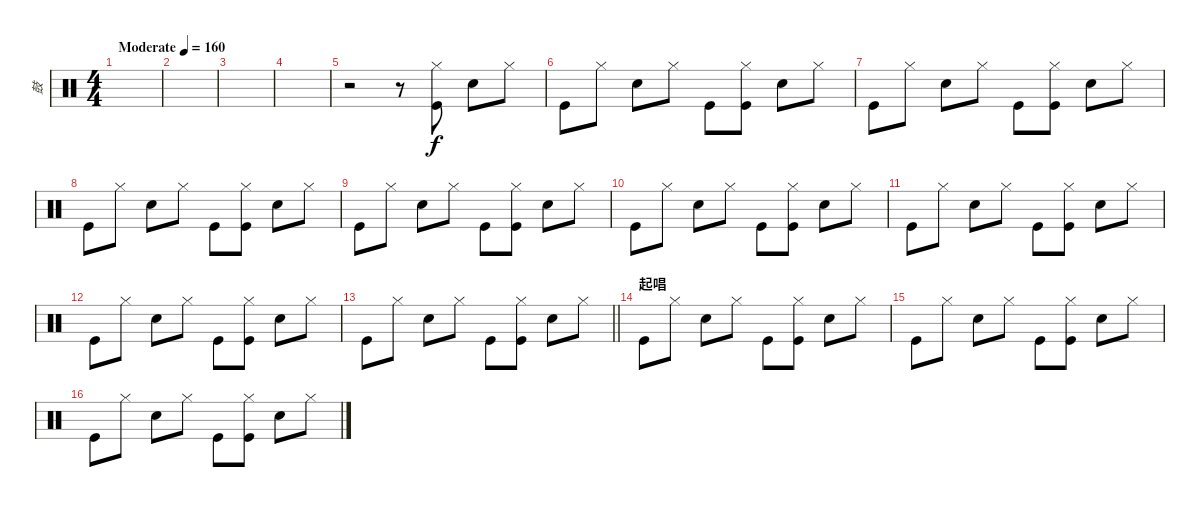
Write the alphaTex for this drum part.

\track ("鼓" "鼓") {instrument percussion}
\staff {score}
\articulation defaults
\ts (4 4)
\tempo (160 "Moderate")
\clef neutral
\ks c
|
|
|
|
r.2 r.8 ("Hi-Hat (closed)" "Kick (hit)").8 "Electric Snare (hit)".8 "Hi-Hat (closed)".8 |
"Kick (hit)".8 "Hi-Hat (closed)".8 "Electric Snare (hit)".8 "Hi-Hat (closed)".8 "Kick (hit)".8 ("Hi-Hat (closed)" "Kick (hit)").8 "Electric Snare (hit)".8 "Hi-Hat (closed)".8 |
"Kick (hit)".8 "Hi-Hat (closed)".8 "Electric Snare (hit)".8 "Hi-Hat (closed)".8 "Kick (hit)".8 ("Hi-Hat (closed)" "Kick (hit)").8 "Electric Snare (hit)".8 "Hi-Hat (closed)".8 |
"Kick (hit)".8 "Hi-Hat (closed)".8 "Electric Snare (hit)".8 "Hi-Hat (closed)".8 "Kick (hit)".8 ("Hi-Hat (closed)" "Kick (hit)").8 "Electric Snare (hit)".8 "Hi-Hat (closed)".8 |
"Kick (hit)".8 "Hi-Hat (closed)".8 "Electric Snare (hit)".8 "Hi-Hat (closed)".8 "Kick (hit)".8 ("Hi-Hat (closed)" "Kick (hit)").8 "Electric Snare (hit)".8 "Hi-Hat (closed)".8 |
"Kick (hit)".8 "Hi-Hat (closed)".8 "Electric Snare (hit)".8 "Hi-Hat (closed)".8 "Kick (hit)".8 ("Hi-Hat (closed)" "Kick (hit)").8 "Electric Snare (hit)".8 "Hi-Hat (closed)".8 |
"Kick (hit)".8 "Hi-Hat (closed)".8 "Electric Snare (hit)".8 "Hi-Hat (closed)".8 "Kick (hit)".8 ("Hi-Hat (closed)" "Kick (hit)").8 "Electric Snare (hit)".8 "Hi-Hat (closed)".8 |
"Kick (hit)".8 "Hi-Hat (closed)".8 "Electric Snare (hit)".8 "Hi-Hat (closed)".8 "Kick (hit)".8 ("Hi-Hat (closed)" "Kick (hit)").8 "Electric Snare (hit)".8 "Hi-Hat (closed)".8 |
\barLineRight lightlight "Kick (hit)".8 "Hi-Hat (closed)".8 "Electric Snare (hit)".8 "Hi-Hat (closed)".8 "Kick (hit)".8
("Hi-Hat (closed)" "Kick (hit)").8 "Electric Snare (hit)".8 "Hi-Hat (closed)".8 |
\section ("" "起唱")
"Kick (hit)".8 "Hi-Hat (closed)".8 "Electric Snare (hit)".8 "Hi-Hat (closed)".8 "Kick (hit)".8 ("Hi-Hat (closed)" "Kick (hit)").8 "Electric Snare (hit)".8 "Hi-Hat (closed)".8 |
"Kick (hit)".8 "Hi-Hat (closed)".8 "Electric Snare (hit)".8 "Hi-Hat (closed)".8 "Kick (hit)".8 ("Hi-Hat (closed)" "Kick (hit)").8 "Electric Snare (hit)".8 "Hi-Hat (closed)".8 |
"Kick (hit)".8 "Hi-Hat (closed)".8 "Electric Snare (hit)".8 "Hi-Hat (closed)".8 "Kick (hit)".8 ("Hi-Hat (closed)" "Kick (hit)").8 "Electric Snare (hit)".8 "Hi-Hat (closed)".8
